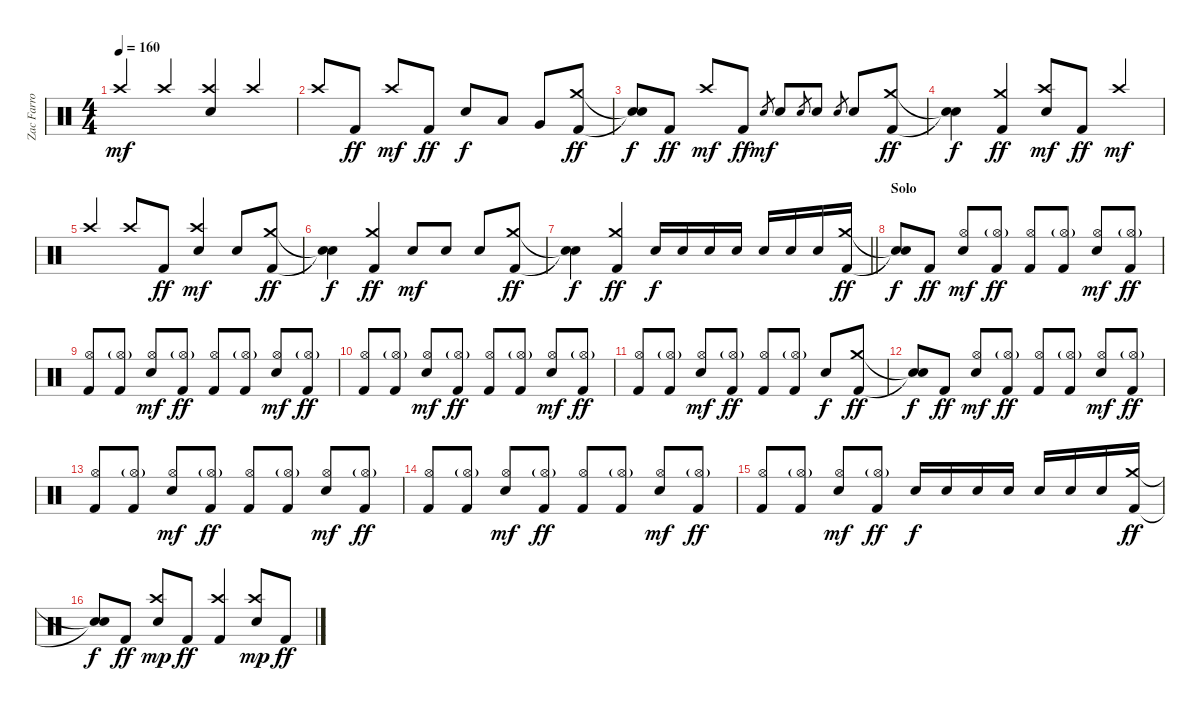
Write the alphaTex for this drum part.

\track ("Zac Farro" "Zac Farro") {instrument percussion}
\staff {score}
\articulation defaults
\ts (4 4)
\tempo 160
\clef neutral
\ks c "Crash high (hit)".4{dy mf beam Up} "Crash high (hit)".4{beam Up}
("Crash high (hit)" "Snare (hit) 2").4{beam Up} "Crash high (hit)".4{beam Up} |
"Crash high (hit)".8{beam Up} "Kick (hit) 2".8{dy ff beam Up} "Crash high (hit)".8{dy mf beam Up} "Kick (hit) 2".8{dy ff beam Up} "Snare (hit) 2".8{dy f beam Up} "Low Tom (hit)".8{beam Up} "Very Low Tom (hit)".8{beam Up} ("Crash medium (hit)" "Kick (hit) 2").8{dy ff beam Up} |
("Snare (hit)"{t} "Snare (hit)"{t}).8{dy f beam Up} "Kick (hit) 2".8{dy ff beam Up} "Crash high (hit)".8{dy mf beam Up} "Kick (hit) 2".8{dy ff beam Up} "Snare (hit) 2".8{gr dy mf} "Snare (hit) 2".8{beam Up} "Snare (hit) 2".8{gr} "Snare (hit) 2".8{beam Up} "Snare (hit) 2".8{gr} "Snare (hit) 2".8{beam Up} ("Crash medium (hit)" "Kick (hit) 2").8{dy ff beam Up} |
("Snare (hit)"{t} "Snare (hit)"{t}).4{dy f} ("Crash medium (hit)" "Kick (hit) 2").4{dy ff beam Up} ("Crash high (hit)" "Snare (hit) 2").8{dy mf beam Up} "Kick (hit) 2".8{dy ff beam Up} "Crash high (hit)".4{dy mf beam Up} |
"Crash high (hit)".4{beam Up} "Crash high (hit)".8{beam Up} "Kick (hit) 2".8{dy ff beam Up} ("Crash high (hit)" "Snare (hit) 2").4{dy mf beam Up} "Snare (hit) 2".8{beam Up} ("Crash medium (hit)" "Kick (hit) 2").8{dy ff beam Up} |
("Snare (hit)"{t} "Snare (hit)"{t}).4{dy f} ("Crash medium (hit)" "Kick (hit) 2").4{dy ff beam Up} "Snare (hit) 2".8{dy mf beam Up} "Snare (hit) 2".8{beam Up} "Snare (hit) 2".8{beam Up} ("Crash medium (hit)" "Kick (hit) 2").8{dy ff beam Up} |
\barLineRight lightlight
("Snare (hit)"{t} "Snare (hit)"{t}).4{dy f} ("Crash medium (hit)" "Kick (hit) 2").4{dy ff beam Up} "Snare (hit) 2".16{dy f beam Up} "Snare (hit) 2".16{beam Up} "Snare (hit) 2".16{beam Up} "Snare (hit) 2".16{beam Up} "Snare (hit) 2".16{beam Up} "Snare (hit) 2".16{beam Up} "Snare (hit) 2".16{beam Up} ("Crash medium (hit)" "Kick (hit) 2").16{dy ff beam Up} |
\section ("" "Solo")
("Snare (hit)"{t} "Snare (hit)"{t}).8{dy f} "Kick (hit) 2".8{dy ff} ("Hi-Hat (open)" "Snare (hit) 2").8{dy mf beam Up} ("Hi-Hat (open)"{g} "Kick (hit) 2").8{dy ff beam Up} ("Hi-Hat (open)" "Kick (hit) 2").8{beam Up} ("Hi-Hat (open)"{g} "Kick (hit) 2").8{beam Up} ("Hi-Hat (open)" "Snare (hit) 2").8{dy mf beam Up} ("Hi-Hat (open)"{g} "Kick (hit) 2").8{dy ff beam Up} |
("Hi-Hat (open)" "Kick (hit) 2").8{beam Up} ("Hi-Hat (open)"{g} "Kick (hit) 2").8{beam Up} ("Hi-Hat (open)" "Snare (hit) 2").8{dy mf beam Up} ("Hi-Hat (open)"{g} "Kick (hit) 2").8{dy ff beam Up} ("Hi-Hat (open)" "Kick (hit) 2").8{beam Up} ("Hi-Hat (open)"{g} "Kick (hit) 2").8{beam Up} ("Hi-Hat (open)" "Snare (hit) 2").8{dy mf beam Up} ("Hi-Hat (open)"{g} "Kick (hit) 2").8{dy ff beam Up} |
("Hi-Hat (open)" "Kick (hit) 2").8{beam Up} ("Hi-Hat (open)"{g} "Kick (hit) 2").8{beam Up} ("Hi-Hat (open)" "Snare (hit) 2").8{dy mf beam Up} ("Hi-Hat (open)"{g} "Kick (hit) 2").8{dy ff beam Up} ("Hi-Hat (open)" "Kick (hit) 2").8{beam Up} ("Hi-Hat (open)"{g} "Kick (hit) 2").8{beam Up} ("Hi-Hat (open)" "Snare (hit) 2").8{dy mf beam Up} ("Hi-Hat (open)"{g} "Kick (hit) 2").8{dy ff beam Up} |
("Hi-Hat (open)" "Kick (hit) 2").8{beam Up} ("Hi-Hat (open)"{g} "Kick (hit) 2").8{beam Up} ("Hi-Hat (open)" "Snare (hit) 2").8{dy mf beam Up} ("Hi-Hat (open)"{g} "Kick (hit) 2").8{dy ff beam Up} ("Hi-Hat (open)" "Kick (hit) 2").8{beam Up} ("Hi-Hat (open)"{g} "Kick (hit) 2").8{beam Up} "Snare (hit) 2".8{dy f beam Up} ("Crash medium (hit)" "Kick (hit) 2").8{dy ff beam Up} |
("Snare (hit)"{t} "Snare (hit)"{t}).8{dy f} "Kick (hit) 2".8{dy ff} ("Hi-Hat (open)" "Snare (hit) 2").8{dy mf beam Up} ("Hi-Hat (open)"{g} "Kick (hit) 2").8{dy ff beam Up} ("Hi-Hat (open)" "Kick (hit) 2").8{beam Up} ("Hi-Hat (open)"{g} "Kick (hit) 2").8{beam Up} ("Hi-Hat (open)" "Snare (hit) 2").8{dy mf beam Up} ("Hi-Hat (open)"{g} "Kick (hit) 2").8{dy ff beam Up} |
("Hi-Hat (open)" "Kick (hit) 2").8{beam Up} ("Hi-Hat (open)"{g} "Kick (hit) 2").8{beam Up} ("Hi-Hat (open)" "Snare (hit) 2").8{dy mf beam Up} ("Hi-Hat (open)"{g} "Kick (hit) 2").8{dy ff beam Up} ("Hi-Hat (open)" "Kick (hit) 2").8{beam Up} ("Hi-Hat (open)"{g} "Kick (hit) 2").8{beam Up} ("Hi-Hat (open)" "Snare (hit) 2").8{dy mf beam Up} ("Hi-Hat (open)"{g} "Kick (hit) 2").8{dy ff beam Up} |
("Hi-Hat (open)" "Kick (hit) 2").8{beam Up} ("Hi-Hat (open)"{g} "Kick (hit) 2").8{beam Up} ("Hi-Hat (open)" "Snare (hit) 2").8{dy mf beam Up} ("Hi-Hat (open)"{g} "Kick (hit) 2").8{dy ff beam Up} ("Hi-Hat (open)" "Kick (hit) 2").8{beam Up} ("Hi-Hat (open)"{g} "Kick (hit) 2").8{beam Up} ("Hi-Hat (open)" "Snare (hit) 2").8{dy mf beam Up} ("Hi-Hat (open)"{g} "Kick (hit) 2").8{dy ff beam Up} |
("Hi-Hat (open)" "Kick (hit) 2").8{beam Up} ("Hi-Hat (open)"{g} "Kick (hit) 2").8{beam Up} ("Hi-Hat (open)" "Snare (hit) 2").8{dy mf beam Up} ("Hi-Hat (open)"{g} "Kick (hit) 2").8{dy ff beam Up} "Snare (hit) 2".16{dy f beam Up} "Snare (hit) 2".16{beam Up} "Snare (hit) 2".16{beam Up} "Snare (hit) 2".16{beam Up} "Snare (hit) 2".16{beam Up} "Snare (hit) 2".16{beam Up} "Snare (hit) 2".16{beam Up} ("Crash medium (hit)" "Kick (hit) 2").16{dy ff beam Up} |
("Snare (hit)"{t} "Snare (hit)"{t}).8{dy f beam Up} "Kick (hit) 2".8{dy ff} ("Crash high (hit)" "Snare (hit) 2").8{dy mp beam Up} "Kick (hit) 2".8{dy ff beam Up} ("Crash high (hit)" "Kick (hit) 2").4{beam Up} ("Crash high (hit)" "Snare (hit) 2").8{dy mp beam Up} "Kick (hit) 2".8{dy ff beam Up}
